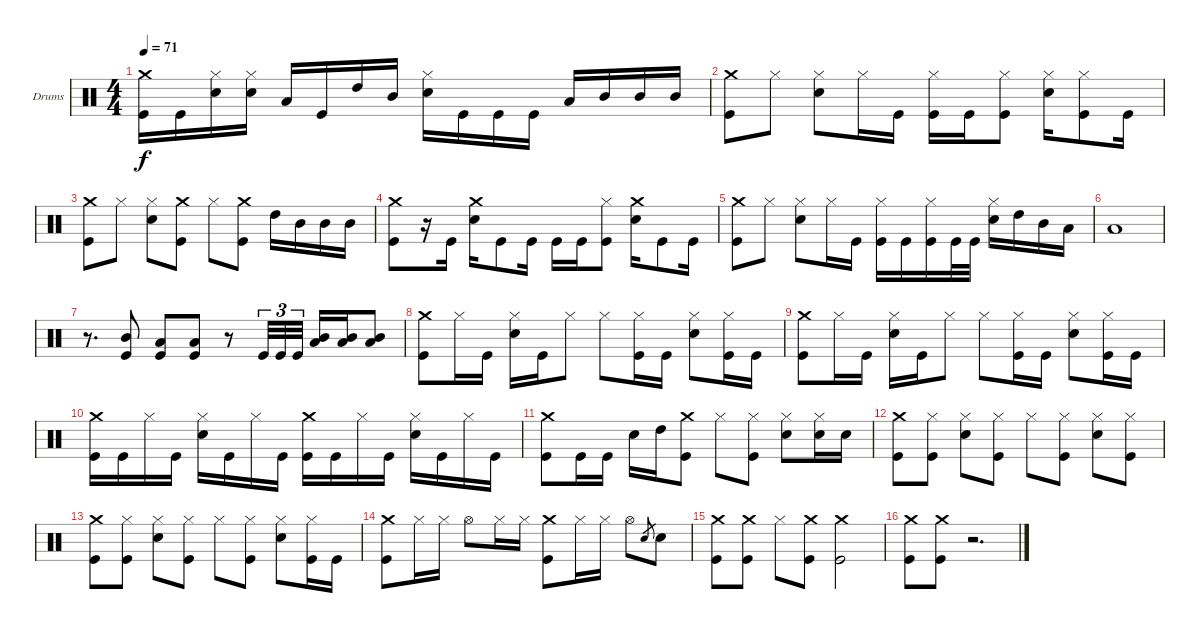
\defaultSystemsLayout 4
\bracketExtendMode groupsimilarinstruments
\firstSystemTrackNameOrientation horizontal
\otherSystemsTrackNameOrientation horizontal
\track ("Drumkit" "Drums") {instrument percussion}
\staff {score}
\articulation defaults
\ts (4 4)
\tempo 71
\clef neutral
\ks c
("Kick (hit)" "Crash medium (hit)").16{dy f} "Kick (hit)".16 ("Hi-Hat (closed)" "Snare (hit) 2").16 ("Hi-Hat (closed)" "Snare (hit) 2").16 "Low Tom (hit)".16 "Kick (hit)".16 "High Tom (hit)".16 "Mid Tom (hit)".16 ("Snare (hit) 2" "Hi-Hat (closed)").16 "Kick (hit)".16 "Kick (hit)".16 "Kick (hit)".16 "Low Tom (hit)".16 "Mid Tom (hit)".16 "Mid Tom (hit)".16 "Mid Tom (hit)".16 |
("Crash medium (hit)" "Kick (hit)").8 "Hi-Hat (closed)".8 ("Hi-Hat (closed)" "Snare (hit) 2").8 "Hi-Hat (closed)".16 "Kick (hit)".16 ("Kick (hit)" "Hi-Hat (closed)").16 "Kick (hit)".16 ("Hi-Hat (closed)" "Kick (hit)").8 ("Hi-Hat (closed)" "Snare (hit) 2").16 ("Hi-Hat (closed)" "Kick (hit)").8 "Kick (hit)".16 |
("Kick (hit)" "Crash medium (hit)").8 "Hi-Hat (closed)".8 ("Hi-Hat (closed)" "Snare (hit) 2").8 ("Crash medium (hit)" "Kick (hit)").8 "Hi-Hat (closed)".8 ("Crash medium (hit)" "Kick (hit)").8 "High Tom (hit)".16 "Mid Tom (hit)".16 "Mid Tom (hit)".16 "Mid Tom (hit)".16 |
("Kick (hit)" "Crash medium (hit)").8 r.16 "Kick (hit)".16 ("Crash medium (hit)" "Snare (hit) 2").16 "Kick (hit)".8 "Kick (hit)".16 "Kick (hit)".16 "Kick (hit)".16 ("Kick (hit)" "Hi-Hat (closed)").8 ("Crash medium (hit)" "Snare (hit) 2").16 "Kick (hit)".8 "Kick (hit)".16 |
("Crash medium (hit)" "Kick (hit)").8 "Hi-Hat (closed)".8 ("Hi-Hat (closed)" "Snare (hit) 2").8 "Hi-Hat (closed)".16 "Kick (hit)".16 ("Kick (hit)" "Hi-Hat (closed)").16 "Kick (hit)".16 ("Kick (hit)" "Hi-Hat (closed)").16 "Kick (hit)".32 "Kick (hit)".32 ("Snare (hit) 2" "Hi-Hat (closed)").16 "High Tom (hit)".16 "Mid Tom (hit)".16 "Low Tom (hit)".16 |
"Low Tom (hit)".1 |
r.8{d} ("Mid Tom (hit)" "Kick (hit)").8 ("Kick (hit)" "Low Tom (hit)").8 ("Kick (hit)" "Low Tom (hit)").8 r.8 "Kick (hit)".32{tu (3 2)} "Kick (hit)".32{tu (3 2)} "Kick (hit)".32{tu (3 2)} ("Low Tom (hit)" "Mid Tom (hit)").16 ("Low Tom (hit)" "Mid Tom (hit)").16 ("Low Tom (hit)" "Mid Tom (hit)").8 |
("Crash medium (hit)" "Kick (hit)").8 "Hi-Hat (closed)".16 "Kick (hit)".16 ("Hi-Hat (closed)" "Snare (hit) 2").16 "Kick (hit)".16 "Hi-Hat (closed)".8 "Hi-Hat (closed)".8 ("Hi-Hat (closed)" "Kick (hit)").16 "Kick (hit)".16 ("Hi-Hat (closed)" "Snare (hit) 2").8 ("Hi-Hat (closed)" "Kick (hit)").16 "Kick (hit)".16 |
("Crash medium (hit)" "Kick (hit)").8 "Hi-Hat (closed)".16 "Kick (hit)".16 ("Hi-Hat (closed)" "Snare (hit) 2").16 "Kick (hit)".16 "Hi-Hat (closed)".8 "Hi-Hat (closed)".8 ("Hi-Hat (closed)" "Kick (hit)").16 "Kick (hit)".16 ("Hi-Hat (closed)" "Snare (hit) 2").8 ("Hi-Hat (closed)" "Kick (hit)").16 "Kick (hit)".16 |
("Crash medium (hit)" "Kick (hit)").16 "Kick (hit)".16 "Hi-Hat (closed)".16 "Kick (hit)".16 ("Snare (hit) 2" "Hi-Hat (closed)").16 "Kick (hit)".16 "Hi-Hat (closed)".16 "Kick (hit)".16 ("Kick (hit)" "Crash medium (hit)").16 "Kick (hit)".16 "Hi-Hat (closed)".16 "Kick (hit)".16 ("Snare (hit) 2" "Hi-Hat (closed)").16 "Kick (hit)".16 "Hi-Hat (closed)".16 "Kick (hit)".16 |
("Kick (hit)" "Crash medium (hit)").8 "Kick (hit)".16 "Kick (hit)".16 "Snare (hit) 2".16 "High Tom (hit)".16 ("Crash medium (hit)" "Kick (hit)").8 "Hi-Hat (closed)".8 ("Hi-Hat (closed)" "Kick (hit)").8 ("Snare (hit) 2" "Hi-Hat (closed)").8 ("Hi-Hat (closed)" "Snare (hit) 2").16 "Snare (hit) 2".16 |
("Crash medium (hit)" "Kick (hit)").8 ("Kick (hit)" "Hi-Hat (closed)").8 ("Hi-Hat (closed)" "Snare (hit) 2").8 ("Hi-Hat (closed)" "Kick (hit)").8 "Hi-Hat (closed)".8 ("Hi-Hat (closed)" "Kick (hit)").8 ("Hi-Hat (closed)" "Snare (hit) 2").8 ("Hi-Hat (closed)" "Kick (hit)").8 |
("Crash medium (hit)" "Kick (hit)").8 ("Kick (hit)" "Hi-Hat (closed)").8 ("Hi-Hat (closed)" "Snare (hit) 2").8 ("Hi-Hat (closed)" "Kick (hit)").8 "Hi-Hat (closed)".8 ("Hi-Hat (closed)" "Kick (hit)").8 ("Hi-Hat (closed)" "Snare (hit) 2").8 ("Kick (hit)" "Hi-Hat (closed)").16 "Kick (hit)".16 |
("Crash medium (hit)" "Kick (hit)").8 "Hi-Hat (closed)".16 "Hi-Hat (closed)".16 "Hi-Hat (open)".8 "Hi-Hat (closed)".16 "Hi-Hat (closed)".16 ("Crash medium (hit)" "Kick (hit)").8 "Hi-Hat (closed)".16 "Hi-Hat (closed)".16 "Hi-Hat (open)".8 "Snare (hit) 2".8{gr} "Snare (hit) 2".8 |
("Crash medium (hit)" "Kick (hit)").8 ("Crash medium (hit)" "Kick (hit)").8 "Hi-Hat (closed)".8 ("Crash medium (hit)" "Kick (hit)").8 ("Crash medium (hit)" "Kick (hit)").2 |
("Crash medium (hit)" "Kick (hit)").8 ("Crash medium (hit)" "Kick (hit)").8 r.2{d}
